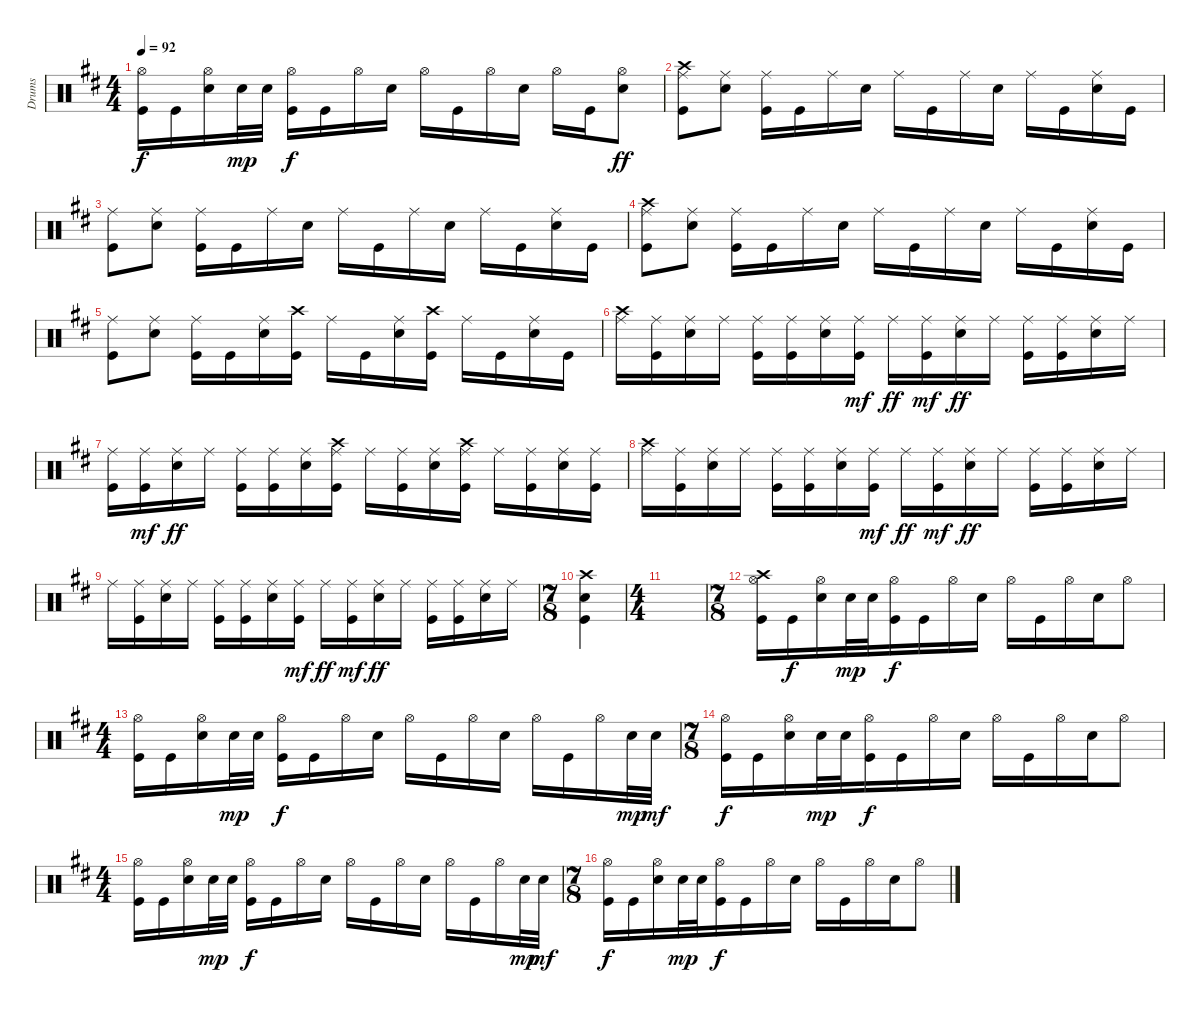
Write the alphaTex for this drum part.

\track ("Drums" "Drums") {instrument percussion}
\staff {score}
\articulation defaults
\ts (4 4)
\tempo 92
\clef neutral
\ks d
("Hi-Hat (open)" "Kick (hit)").16{dy f} "Kick (hit)".16 ("Hi-Hat (open)" "Snare (hit) 2").16 "Snare (hit) 2".32{dy mp} "Snare (hit) 2".32 ("Hi-Hat (open)" "Kick (hit)").16{dy f} "Kick (hit)".16 "Hi-Hat (open)".16 "Snare (hit) 2".16 "Hi-Hat (open)".16 "Kick (hit)".16 "Hi-Hat (open)".16 "Snare (hit) 2".16 "Hi-Hat (open)".16 "Kick (hit)".16 ("Hi-Hat (open)" "Snare (hit) 2").8{dy ff} |
("Crash high (hit)" "Ride (middle)" "Kick (hit)").8 ("Ride (middle)" "Snare (hit) 2").8 ("Ride (middle)" "Kick (hit)").16 "Kick (hit)".16 "Ride (middle)".16 "Snare (hit) 2".16 "Ride (middle)".16 "Kick (hit)".16 "Ride (middle)".16 "Snare (hit) 2".16 "Ride (middle)".16 "Kick (hit)".16 ("Ride (middle)" "Snare (hit) 2").16 "Kick (hit)".16 |
("Ride (middle)" "Kick (hit)").8 ("Ride (middle)" "Snare (hit) 2").8 ("Ride (middle)" "Kick (hit)").16 "Kick (hit)".16 "Ride (middle)".16 "Snare (hit) 2".16 "Ride (middle)".16 "Kick (hit)".16 "Ride (middle)".16 "Snare (hit) 2".16 "Ride (middle)".16 "Kick (hit)".16 ("Ride (middle)" "Snare (hit) 2").16 "Kick (hit)".16 |
("Crash high (hit)" "Ride (middle)" "Kick (hit)").8 ("Ride (middle)" "Snare (hit) 2").8 ("Ride (middle)" "Kick (hit)").16 "Kick (hit)".16 "Ride (middle)".16 "Snare (hit) 2".16 "Ride (middle)".16 "Kick (hit)".16 "Ride (middle)".16 "Snare (hit) 2".16 "Ride (middle)".16 "Kick (hit)".16 ("Ride (middle)" "Snare (hit) 2").16 "Kick (hit)".16 |
("Ride (middle)" "Kick (hit)").8 ("Ride (middle)" "Snare (hit) 2").8 ("Ride (middle)" "Kick (hit)").16 "Kick (hit)".16 ("Ride (middle)" "Snare (hit) 2").16 ("Crash high (hit)" "Kick (hit)").16 "Ride (middle)".16 "Kick (hit)".16 ("Ride (middle)" "Snare (hit) 2").16 ("Crash high (hit)" "Kick (hit)").16 "Ride (middle)".16 "Kick (hit)".16 ("Ride (middle)" "Snare (hit) 2").16 "Kick (hit)".16 |
("Ride (middle)" "Crash high (hit)").16 ("Ride (middle)" "Kick (hit)").16 ("Ride (middle)" "Snare (hit) 2").16 "Ride (middle)".16 ("Ride (middle)" "Kick (hit)").16 ("Ride (middle)" "Kick (hit)").16 ("Ride (middle)" "Snare (hit) 2").16 ("Ride (middle)" "Kick (hit)").16{dy mf} "Ride (middle)".16{dy ff} ("Ride (middle)" "Kick (hit)").16{dy mf} ("Ride (middle)" "Snare (hit) 2").16{dy ff} "Ride (middle)".16 ("Ride (middle)" "Kick (hit)").16 ("Ride (middle)" "Kick (hit)").16 ("Ride (middle)" "Snare (hit) 2").16 "Ride (middle)".16 |
("Ride (middle)" "Kick (hit)").16 ("Ride (middle)" "Kick (hit)").16{dy mf} ("Ride (middle)" "Snare (hit) 2").16{dy ff} "Ride (middle)".16 ("Ride (middle)" "Kick (hit)").16 ("Ride (middle)" "Kick (hit)").16 ("Ride (middle)" "Snare (hit) 2").16 ("Ride (middle)" "Crash high (hit)" "Kick (hit)").16 "Ride (middle)".16 ("Ride (middle)" "Kick (hit)").16 ("Ride (middle)" "Snare (hit) 2").16 ("Ride (middle)" "Crash high (hit)" "Kick (hit)").16 "Ride (middle)".16 ("Ride (middle)" "Kick (hit)").16 ("Ride (middle)" "Snare (hit) 2").16 ("Ride (middle)" "Kick (hit)").16 |
("Ride (middle)" "Crash high (hit)").16 ("Ride (middle)" "Kick (hit)").16 ("Ride (middle)" "Snare (hit) 2").16 "Ride (middle)".16 ("Ride (middle)" "Kick (hit)").16 ("Ride (middle)" "Kick (hit)").16 ("Ride (middle)" "Snare (hit) 2").16 ("Ride (middle)" "Kick (hit)").16{dy mf} "Ride (middle)".16{dy ff} ("Ride (middle)" "Kick (hit)").16{dy mf} ("Ride (middle)" "Snare (hit) 2").16{dy ff} "Ride (middle)".16 ("Ride (middle)" "Kick (hit)").16 ("Ride (middle)" "Kick (hit)").16 ("Ride (middle)" "Snare (hit) 2").16 "Ride (middle)".16 |
"Ride (middle)".16 ("Ride (middle)" "Kick (hit)").16 ("Ride (middle)" "Snare (hit) 2").16 "Ride (middle)".16 ("Ride (middle)" "Kick (hit)").16 ("Ride (middle)" "Kick (hit)").16 ("Ride (middle)" "Snare (hit) 2").16 ("Ride (middle)" "Kick (hit)").16{dy mf} "Ride (middle)".16{dy ff} ("Ride (middle)" "Kick (hit)").16{dy mf} ("Ride (middle)" "Snare (hit) 2").16{dy ff} "Ride (middle)".16 ("Ride (middle)" "Kick (hit)").16 ("Ride (middle)" "Kick (hit)").16 ("Ride (middle)" "Snare (hit) 2").16 "Ride (middle)".16 |
\ts (7 8)
("Crash high (hit)" "Snare (hit) 2" "Kick (hit)").4 |
\ts (4 4)
|
\ts (7 8)
("Crash high (hit)" "Hi-Hat (open)" "Kick (hit)").16 "Kick (hit)".16{dy f} ("Hi-Hat (open)" "Snare (hit) 2").16 "Snare (hit) 2".32{dy mp} "Snare (hit) 2".32 ("Hi-Hat (open)" "Kick (hit)").16{dy f} "Kick (hit)".16 "Hi-Hat (open)".16 "Snare (hit) 2".16 "Hi-Hat (open)".16 "Kick (hit)".16 "Hi-Hat (open)".16 "Snare (hit) 2".16 "Hi-Hat (open)".8 |
\ts (4 4)
("Hi-Hat (open)" "Kick (hit)").16 "Kick (hit)".16 ("Hi-Hat (open)" "Snare (hit) 2").16 "Snare (hit) 2".32{dy mp} "Snare (hit) 2".32 ("Hi-Hat (open)" "Kick (hit)").16{dy f} "Kick (hit)".16 "Hi-Hat (open)".16 "Snare (hit) 2".16 "Hi-Hat (open)".16 "Kick (hit)".16 "Hi-Hat (open)".16 "Snare (hit) 2".16 "Hi-Hat (open)".16 "Kick (hit)".16 "Hi-Hat (open)".16 "Snare (hit) 2".32{dy mp} "Snare (hit) 2".32{dy mf} |
\ts (7 8)
("Hi-Hat (open)" "Kick (hit)").16{dy f} "Kick (hit)".16 ("Hi-Hat (open)" "Snare (hit) 2").16 "Snare (hit) 2".32{dy mp} "Snare (hit) 2".32 ("Hi-Hat (open)" "Kick (hit)").16{dy f} "Kick (hit)".16 "Hi-Hat (open)".16 "Snare (hit) 2".16 "Hi-Hat (open)".16 "Kick (hit)".16 "Hi-Hat (open)".16 "Snare (hit) 2".16 "Hi-Hat (open)".8 |
\ts (4 4)
("Hi-Hat (open)" "Kick (hit)").16 "Kick (hit)".16 ("Hi-Hat (open)" "Snare (hit) 2").16 "Snare (hit) 2".32{dy mp} "Snare (hit) 2".32 ("Hi-Hat (open)" "Kick (hit)").16{dy f} "Kick (hit)".16 "Hi-Hat (open)".16 "Snare (hit) 2".16 "Hi-Hat (open)".16 "Kick (hit)".16 "Hi-Hat (open)".16 "Snare (hit) 2".16 "Hi-Hat (open)".16 "Kick (hit)".16 "Hi-Hat (open)".16 "Snare (hit) 2".32{dy mp} "Snare (hit) 2".32{dy mf} |
\ts (7 8)
("Hi-Hat (open)" "Kick (hit)").16{dy f} "Kick (hit)".16 ("Hi-Hat (open)" "Snare (hit) 2").16 "Snare (hit) 2".32{dy mp} "Snare (hit) 2".32 ("Hi-Hat (open)" "Kick (hit)").16{dy f} "Kick (hit)".16 "Hi-Hat (open)".16 "Snare (hit) 2".16 "Hi-Hat (open)".16 "Kick (hit)".16 "Hi-Hat (open)".16 "Snare (hit) 2".16 "Hi-Hat (open)".8
